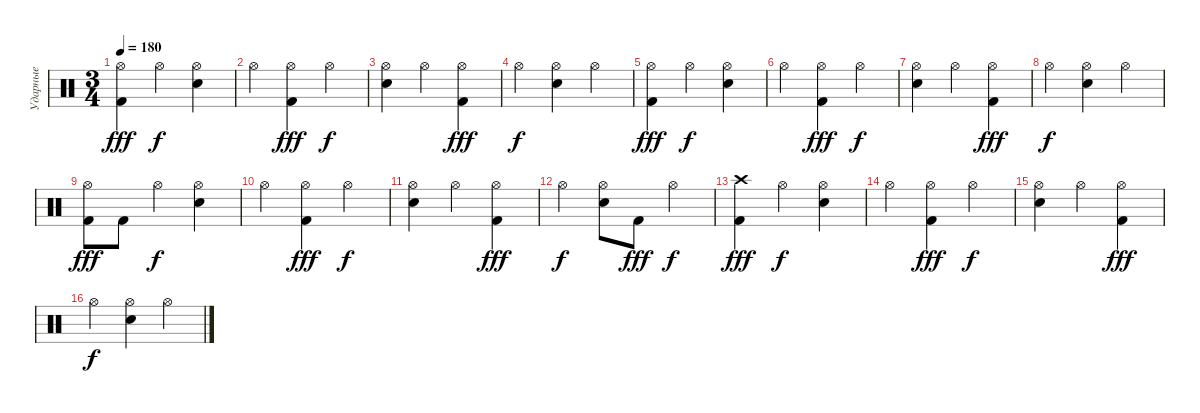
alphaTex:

\track ("Ударные" "Ударные") {instrument percussion}
\staff {score}
\articulation defaults
\ts (3 4)
\tempo 180
\clef neutral
\ks c
("Kick (hit) 2" "Hi-Hat (open)").4{dy fff} "Hi-Hat (open)".4{dy f} ("Snare (hit) 2" "Hi-Hat (open)").4 |
"Hi-Hat (open)".4 ("Kick (hit) 2" "Hi-Hat (open)").4{dy fff} "Hi-Hat (open)".4{dy f} |
("Snare (hit) 2" "Hi-Hat (open)").4 "Hi-Hat (open)".4 ("Kick (hit) 2" "Hi-Hat (open)").4{dy fff} |
"Hi-Hat (open)".4{dy f} ("Snare (hit) 2" "Hi-Hat (open)").4 "Hi-Hat (open)".4 |
("Kick (hit) 2" "Hi-Hat (open)").4{dy fff} "Hi-Hat (open)".4{dy f} ("Snare (hit) 2" "Hi-Hat (open)").4 |
"Hi-Hat (open)".4 ("Kick (hit) 2" "Hi-Hat (open)").4{dy fff} "Hi-Hat (open)".4{dy f} |
("Snare (hit) 2" "Hi-Hat (open)").4 "Hi-Hat (open)".4 ("Kick (hit) 2" "Hi-Hat (open)").4{dy fff} |
"Hi-Hat (open)".4{dy f} ("Snare (hit) 2" "Hi-Hat (open)").4 "Hi-Hat (open)".4 |
("Kick (hit) 2" "Hi-Hat (open)").8{dy fff} "Kick (hit) 2".8 "Hi-Hat (open)".4{dy f} ("Snare (hit) 2" "Hi-Hat (open)").4 |
"Hi-Hat (open)".4 ("Kick (hit) 2" "Hi-Hat (open)").4{dy fff} "Hi-Hat (open)".4{dy f} |
("Snare (hit) 2" "Hi-Hat (open)").4 "Hi-Hat (open)".4 ("Kick (hit) 2" "Hi-Hat (open)").4{dy fff} |
"Hi-Hat (open)".4{dy f} ("Snare (hit) 2" "Hi-Hat (open)").8 "Kick (hit) 2".8{dy fff} "Hi-Hat (open)".4{dy f} |
("Kick (hit) 2" "Crash high (hit)").4{dy fff} "Hi-Hat (open)".4{dy f} ("Snare (hit) 2" "Hi-Hat (open)").4 |
"Hi-Hat (open)".4 ("Kick (hit) 2" "Hi-Hat (open)").4{dy fff} "Hi-Hat (open)".4{dy f} |
("Snare (hit) 2" "Hi-Hat (open)").4 "Hi-Hat (open)".4 ("Kick (hit) 2" "Hi-Hat (open)").4{dy fff} |
"Hi-Hat (open)".4{dy f} ("Snare (hit) 2" "Hi-Hat (open)").4 "Hi-Hat (open)".4
